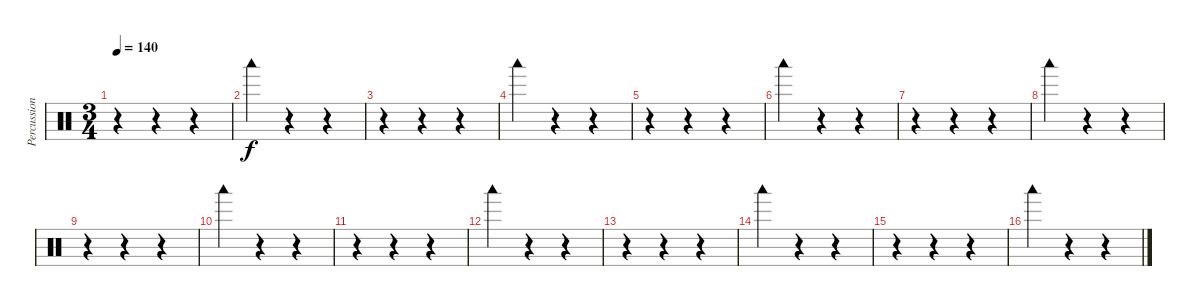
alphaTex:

\track ("Percussions" "Percussion") {instrument percussion}
\staff {score}
\articulation defaults
\ts (3 4)
\tempo 140
\clef neutral
\ks c
r.4{dy f} r.4 r.4 |
"Woodblock low (hit)".4 r.4 r.4 |
r.4 r.4 r.4 |
"Woodblock low (hit)".4 r.4 r.4 |
r.4 r.4 r.4 |
"Woodblock low (hit)".4 r.4 r.4 |
r.4 r.4 r.4 |
"Woodblock low (hit)".4 r.4 r.4 |
r.4 r.4 r.4 |
"Woodblock low (hit)".4 r.4 r.4 |
r.4 r.4 r.4 |
"Woodblock low (hit)".4 r.4 r.4 |
r.4 r.4 r.4 |
"Woodblock low (hit)".4 r.4 r.4 |
r.4 r.4 r.4 |
"Woodblock low (hit)".4 r.4 r.4
